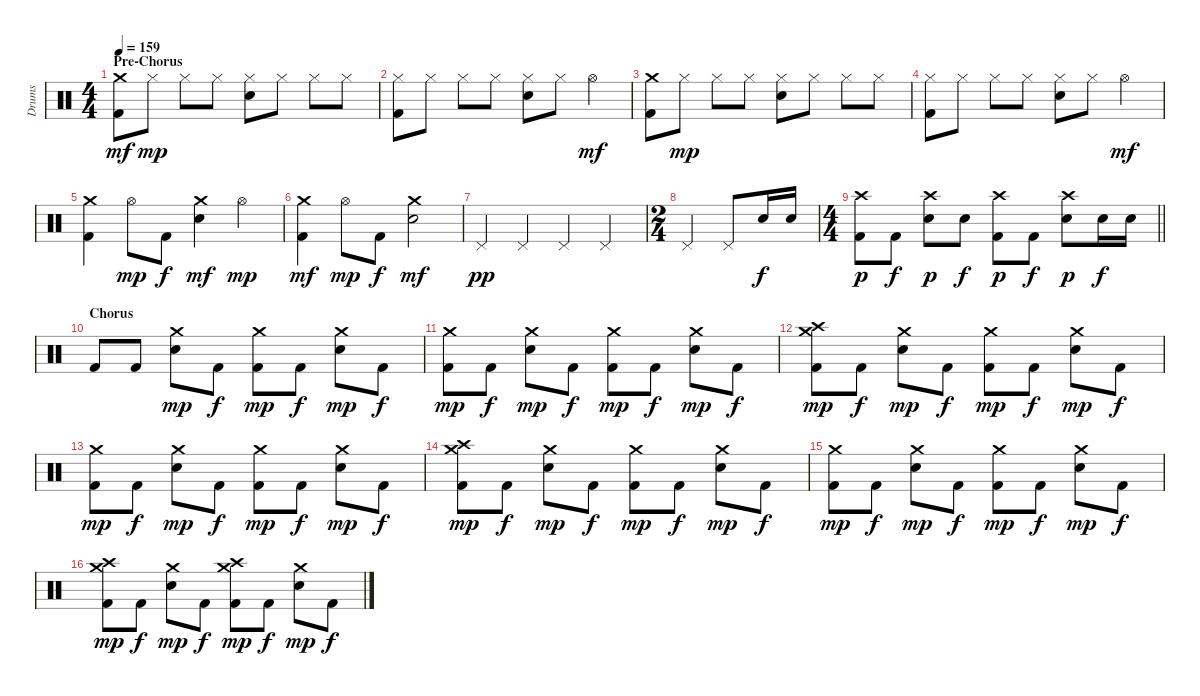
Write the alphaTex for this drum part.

\track ("Drums" "Drums") {instrument percussion}
\staff {score}
\articulation defaults
\ts (4 4)
\section ("" "Pre-Chorus")
\tempo 159
\clef neutral
\ks c
("Crash medium (hit)" "Kick (hit) 2").8{dy mf} "Hi-Hat (closed)".8{dy mp} "Hi-Hat (closed)".8 "Hi-Hat (closed)".8 ("Hi-Hat (closed)" "Electric Snare (hit)").8 "Hi-Hat (closed)".8 "Hi-Hat (closed)".8 "Hi-Hat (closed)".8 |
("Hi-Hat (closed)" "Kick (hit) 2").8 "Hi-Hat (closed)".8 "Hi-Hat (closed)".8 "Hi-Hat (closed)".8 ("Hi-Hat (closed)" "Electric Snare (hit)").8 "Hi-Hat (closed)".8 "Hi-Hat (open)".4{dy mf} |
("Crash medium (hit)" "Kick (hit) 2").8 "Hi-Hat (closed)".8{dy mp} "Hi-Hat (closed)".8 "Hi-Hat (closed)".8 ("Hi-Hat (closed)" "Electric Snare (hit)").8 "Hi-Hat (closed)".8 "Hi-Hat (closed)".8 "Hi-Hat (closed)".8 |
("Hi-Hat (closed)" "Kick (hit) 2").8 "Hi-Hat (closed)".8 "Hi-Hat (closed)".8 "Hi-Hat (closed)".8 ("Hi-Hat (closed)" "Electric Snare (hit)").8 "Hi-Hat (closed)".8 "Hi-Hat (open)".4{dy mf} |
("Crash medium (hit)" "Kick (hit) 2").4 "Hi-Hat (open)".8{dy mp} "Kick (hit) 2".8{dy f} ("Crash medium (hit)" "Electric Snare (hit)").4{dy mf} "Hi-Hat (open)".4{dy mp} |
("Crash medium (hit)" "Kick (hit) 2").4{dy mf} "Hi-Hat (open)".8{dy mp} "Kick (hit) 2".8{dy f} ("Crash medium (hit)" "Electric Snare (hit)").2{dy mf} |
"Pedal Hi-Hat (hit)".4{dy pp} "Pedal Hi-Hat (hit)".4 "Pedal Hi-Hat (hit)".4 "Pedal Hi-Hat (hit)".4 |
\ts (2 4)
"Pedal Hi-Hat (hit)".4 "Pedal Hi-Hat (hit)".8 "Electric Snare (hit)".16{dy f} "Electric Snare (hit)".16 |
\ts (4 4)
\barLineRight lightlight
("Crash high (hit)" "Kick (hit) 2").8{dy p} "Kick (hit) 2".8{dy f} ("Crash high (hit)" "Electric Snare (hit)").8{dy p} "Electric Snare (hit)".8{dy f} ("Crash high (hit)" "Kick (hit) 2").8{dy p} "Kick (hit) 2".8{dy f} ("Crash high (hit)" "Electric Snare (hit)").8{dy p} "Electric Snare (hit)".16{dy f} "Electric Snare (hit)".16 |
\section ("" "Chorus")
"Kick (hit) 2".8 "Kick (hit) 2".8 ("Crash medium (hit)" "Electric Snare (hit)").8{dy mp} "Kick (hit) 2".8{dy f} ("Crash medium (hit)" "Kick (hit) 2").8{dy mp} "Kick (hit) 2".8{dy f} ("Crash medium (hit)" "Electric Snare (hit)").8{dy mp} "Kick (hit) 2".8{dy f} |
("Crash medium (hit)" "Kick (hit) 2").8{dy mp} "Kick (hit) 2".8{dy f} ("Crash medium (hit)" "Electric Snare (hit)").8{dy mp} "Kick (hit) 2".8{dy f} ("Crash medium (hit)" "Kick (hit) 2").8{dy mp} "Kick (hit) 2".8{dy f} ("Crash medium (hit)" "Electric Snare (hit)").8{dy mp} "Kick (hit) 2".8{dy f} |
("Crash high (hit)" "Crash medium (hit)" "Kick (hit) 2").8{dy mp} "Kick (hit) 2".8{dy f} ("Crash medium (hit)" "Electric Snare (hit)").8{dy mp} "Kick (hit) 2".8{dy f} ("Crash medium (hit)" "Kick (hit) 2").8{dy mp} "Kick (hit) 2".8{dy f} ("Crash medium (hit)" "Electric Snare (hit)").8{dy mp} "Kick (hit) 2".8{dy f} |
("Crash medium (hit)" "Kick (hit) 2").8{dy mp} "Kick (hit) 2".8{dy f} ("Crash medium (hit)" "Electric Snare (hit)").8{dy mp} "Kick (hit) 2".8{dy f} ("Crash medium (hit)" "Kick (hit) 2").8{dy mp} "Kick (hit) 2".8{dy f} ("Crash medium (hit)" "Electric Snare (hit)").8{dy mp} "Kick (hit) 2".8{dy f} |
("Crash high (hit)" "Crash medium (hit)" "Kick (hit) 2").8{dy mp} "Kick (hit) 2".8{dy f} ("Crash medium (hit)" "Electric Snare (hit)").8{dy mp} "Kick (hit) 2".8{dy f} ("Crash medium (hit)" "Kick (hit) 2").8{dy mp} "Kick (hit) 2".8{dy f} ("Crash medium (hit)" "Electric Snare (hit)").8{dy mp} "Kick (hit) 2".8{dy f} |
("Crash medium (hit)" "Kick (hit) 2").8{dy mp} "Kick (hit) 2".8{dy f} ("Crash medium (hit)" "Electric Snare (hit)").8{dy mp} "Kick (hit) 2".8{dy f} ("Crash medium (hit)" "Kick (hit) 2").8{dy mp} "Kick (hit) 2".8{dy f} ("Crash medium (hit)" "Electric Snare (hit)").8{dy mp} "Kick (hit) 2".8{dy f} |
("Crash high (hit)" "Crash medium (hit)" "Kick (hit) 2").8{dy mp} "Kick (hit) 2".8{dy f} ("Crash medium (hit)" "Electric Snare (hit)").8{dy mp} "Kick (hit) 2".8{dy f} ("Crash high (hit)" "Crash medium (hit)" "Kick (hit) 2").8{dy mp} "Kick (hit) 2".8{dy f} ("Crash medium (hit)" "Electric Snare (hit)").8{dy mp} "Kick (hit) 2".8{dy f}
